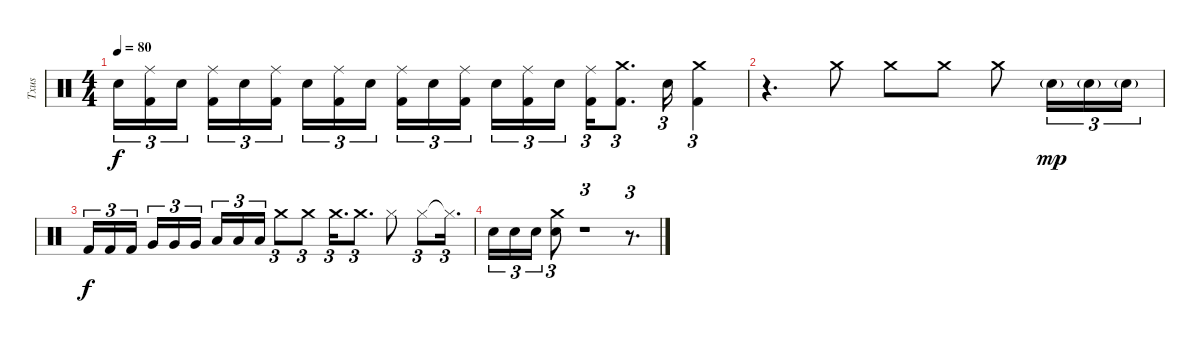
\track ("Txus" "Txus") {instrument percussion}
\staff {score}
\articulation defaults
\ts (4 4)
\tempo 80
\clef neutral
\ks c "Electric Snare (hit)".16{tu (3 2) dy f}
("Ride (middle)" "Kick (hit) 2").16{tu (3 2)} "Electric Snare (hit)".16{tu (3 2) beam splitsecondary} ("Ride (middle)" "Kick (hit) 2").16{tu (3 2)} "Electric Snare (hit)".16{tu (3 2)} ("Ride (middle)" "Kick (hit) 2").16{tu (3 2)} "Electric Snare (hit)".16{tu (3 2)} ("Ride (middle)" "Kick (hit) 2").16{tu (3 2)} "Electric Snare (hit)".16{tu (3 2) beam splitsecondary} ("Ride (middle)" "Kick (hit) 2").16{tu (3 2)} "Electric Snare (hit)".16{tu (3 2)} ("Ride (middle)" "Kick (hit) 2").16{tu (3 2)} "Electric Snare (hit)".16{tu (3 2)} ("Ride (middle)" "Kick (hit) 2").16{tu (3 2)} "Electric Snare (hit)".16{tu (3 2) beam splitsecondary} ("Ride (middle)" "Kick (hit) 2").16{tu (3 2)} ("Crash medium (hit)" "Kick (hit) 2").8{d tu (3 2)} "Electric Snare (hit)".16{tu (3 2)} ("Crash medium (hit)" "Kick (hit) 2").4{tu (3 2)} |
r.4{d} "Crash medium (hit)".8 "Crash medium (hit)".8 "Crash medium (hit)".8 "Crash medium (hit)".8 "Electric Snare (hit)"{g}.16{tu (3 2) dy mp} "Electric Snare (hit)"{g}.16{tu (3 2)} "Electric Snare (hit)"{g}.16{tu (3 2)} |
"Kick (hit) 2".16{tu (3 2) dy f} "Kick (hit) 2".16{tu (3 2)} "Kick (hit) 2".16{tu (3 2) beam splitsecondary} "Very Low Tom (hit)".16{tu (3 2)} "Very Low Tom (hit)".16{tu (3 2)} "Very Low Tom (hit)".16{tu (3 2)} "Low Floor Tom (hit)".16{tu (3 2)} "Low Floor Tom (hit)".16{tu (3 2)} "Low Floor Tom (hit)".16{tu (3 2)} "Crash medium (hit)".8{tu (3 2)} "Crash medium (hit)".8{tu (3 2)} "Crash medium (hit)".16{d tu (3 2)} "Crash medium (hit)".8{d tu (3 2)} "Hi-Hat (closed)".8 "Hi-Hat (closed)".8{tu (3 2)} "Hi-Hat (closed)"{t}.16{d tu (3 2)} |
"Electric Snare (hit)".16{tu (3 2)} "Electric Snare (hit)".16{tu (3 2)} "Electric Snare (hit)".16{tu (3 2)} ("Crash medium (hit)" "Electric Snare (hit)").8{tu (3 2)} r.1{tu (3 2)} r.8{d tu (3 2)}
